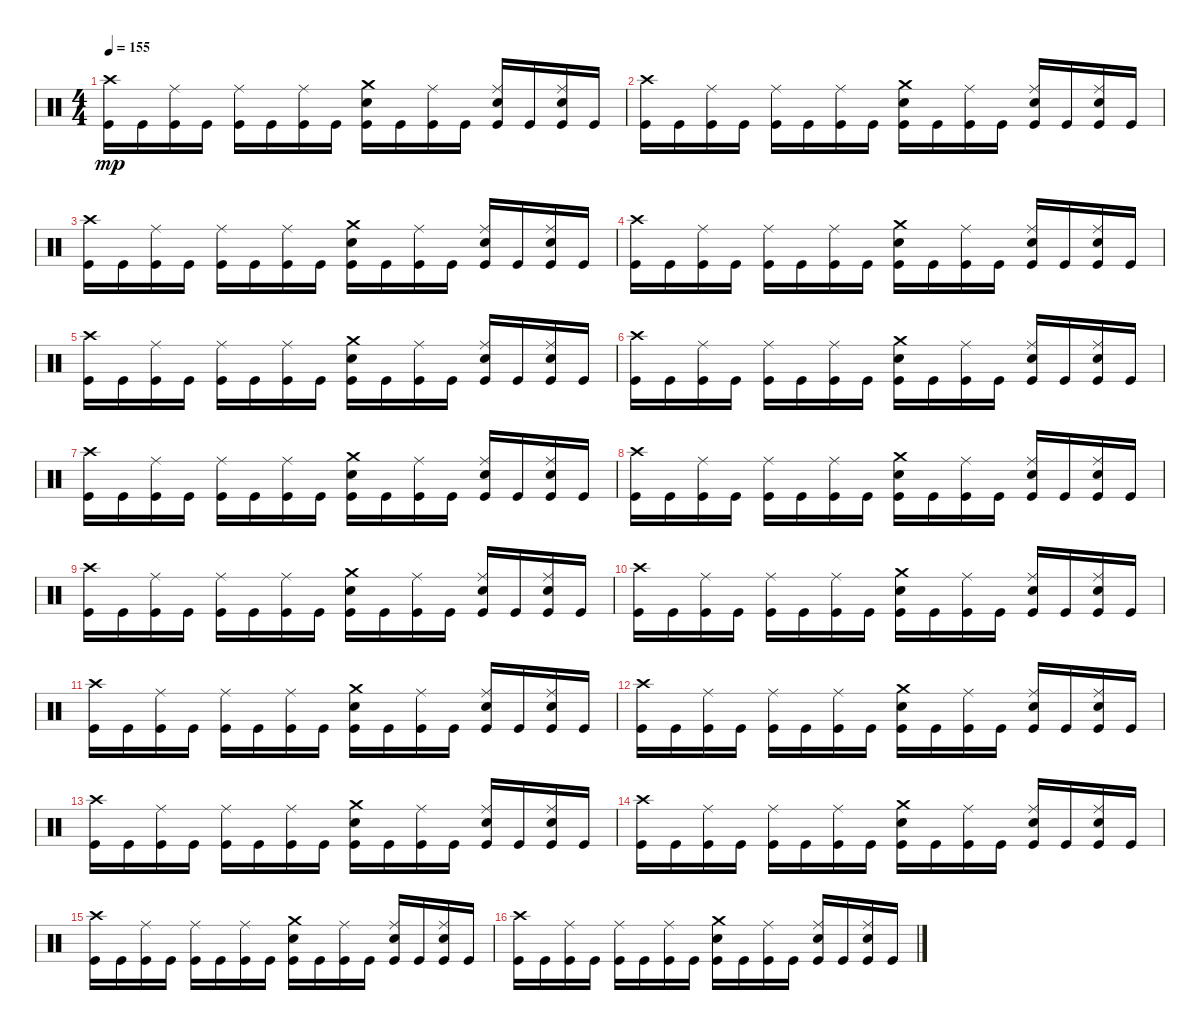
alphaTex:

\track "" {instrument percussion}
\staff {score}
\articulation defaults
\ts (4 4)
\tempo 155
\clef neutral
\ks c
("Crash high (hit)" "Kick (hit)").16{dy mp} "Kick (hit)".16 ("Kick (hit)" "Ride (middle)").16 "Kick (hit)".16 ("Kick (hit)" "Ride (middle)").16 "Kick (hit)".16 ("Kick (hit)" "Ride (middle)").16 "Kick (hit)".16 ("Kick (hit)" "Snare (hit) 2" "Crash medium (hit)").16 "Kick (hit)".16 ("Kick (hit)" "Ride (middle)").16 "Kick (hit)".16 ("Kick (hit)" "Ride (middle)" "Snare (hit) 2").16 "Kick (hit)".16 ("Kick (hit)" "Ride (middle)" "Snare (hit) 2").16 "Kick (hit)".16 |
("Kick (hit)" "Crash high (hit)").16 "Kick (hit)".16 ("Kick (hit)" "Ride (middle)").16 "Kick (hit)".16 ("Kick (hit)" "Ride (middle)").16 "Kick (hit)".16 ("Kick (hit)" "Ride (middle)").16 "Kick (hit)".16 ("Kick (hit)" "Snare (hit) 2" "Crash medium (hit)").16 "Kick (hit)".16 ("Kick (hit)" "Ride (middle)").16 "Kick (hit)".16 ("Ride (middle)" "Kick (hit)" "Snare (hit) 2").16 "Kick (hit)".16 ("Ride (middle)" "Kick (hit)" "Snare (hit) 2").16 "Kick (hit)".16 |
("Crash high (hit)" "Kick (hit)").16 "Kick (hit)".16 ("Kick (hit)" "Ride (middle)").16 "Kick (hit)".16 ("Kick (hit)" "Ride (middle)").16 "Kick (hit)".16 ("Kick (hit)" "Ride (middle)").16 "Kick (hit)".16 ("Kick (hit)" "Snare (hit) 2" "Crash medium (hit)").16 "Kick (hit)".16 ("Kick (hit)" "Ride (middle)").16 "Kick (hit)".16 ("Kick (hit)" "Ride (middle)" "Snare (hit) 2").16 "Kick (hit)".16 ("Kick (hit)" "Ride (middle)" "Snare (hit) 2").16 "Kick (hit)".16 |
("Kick (hit)" "Crash high (hit)").16 "Kick (hit)".16 ("Kick (hit)" "Ride (middle)").16 "Kick (hit)".16 ("Kick (hit)" "Ride (middle)").16 "Kick (hit)".16 ("Kick (hit)" "Ride (middle)").16 "Kick (hit)".16 ("Kick (hit)" "Snare (hit) 2" "Crash medium (hit)").16 "Kick (hit)".16 ("Kick (hit)" "Ride (middle)").16 "Kick (hit)".16 ("Kick (hit)" "Ride (middle)" "Snare (hit) 2").16 "Kick (hit)".16 ("Kick (hit)" "Ride (middle)" "Snare (hit) 2").16 "Kick (hit)".16 |
("Crash high (hit)" "Kick (hit)").16 "Kick (hit)".16 ("Kick (hit)" "Ride (middle)").16 "Kick (hit)".16 ("Kick (hit)" "Ride (middle)").16 "Kick (hit)".16 ("Kick (hit)" "Ride (middle)").16 "Kick (hit)".16 ("Kick (hit)" "Snare (hit) 2" "Crash medium (hit)").16 "Kick (hit)".16 ("Kick (hit)" "Ride (middle)").16 "Kick (hit)".16 ("Kick (hit)" "Ride (middle)" "Snare (hit) 2").16 "Kick (hit)".16 ("Kick (hit)" "Ride (middle)" "Snare (hit) 2").16 "Kick (hit)".16 |
("Kick (hit)" "Crash high (hit)").16 "Kick (hit)".16 ("Kick (hit)" "Ride (middle)").16 "Kick (hit)".16 ("Kick (hit)" "Ride (middle)").16 "Kick (hit)".16 ("Kick (hit)" "Ride (middle)").16 "Kick (hit)".16 ("Kick (hit)" "Snare (hit) 2" "Crash medium (hit)").16 "Kick (hit)".16 ("Kick (hit)" "Ride (middle)").16 "Kick (hit)".16 ("Ride (middle)" "Kick (hit)" "Snare (hit) 2").16 "Kick (hit)".16 ("Ride (middle)" "Kick (hit)" "Snare (hit) 2").16 "Kick (hit)".16 |
("Crash high (hit)" "Kick (hit)").16 "Kick (hit)".16 ("Kick (hit)" "Ride (middle)").16 "Kick (hit)".16 ("Kick (hit)" "Ride (middle)").16 "Kick (hit)".16 ("Kick (hit)" "Ride (middle)").16 "Kick (hit)".16 ("Kick (hit)" "Snare (hit) 2" "Crash medium (hit)").16 "Kick (hit)".16 ("Kick (hit)" "Ride (middle)").16 "Kick (hit)".16 ("Kick (hit)" "Ride (middle)" "Snare (hit) 2").16 "Kick (hit)".16 ("Kick (hit)" "Ride (middle)" "Snare (hit) 2").16 "Kick (hit)".16 |
("Kick (hit)" "Crash high (hit)").16 "Kick (hit)".16 ("Kick (hit)" "Ride (middle)").16 "Kick (hit)".16 ("Kick (hit)" "Ride (middle)").16 "Kick (hit)".16 ("Kick (hit)" "Ride (middle)").16 "Kick (hit)".16 ("Kick (hit)" "Snare (hit) 2" "Crash medium (hit)").16 "Kick (hit)".16 ("Kick (hit)" "Ride (middle)").16 "Kick (hit)".16 ("Kick (hit)" "Ride (middle)" "Snare (hit) 2").16 "Kick (hit)".16 ("Kick (hit)" "Ride (middle)" "Snare (hit) 2").16 "Kick (hit)".16 |
("Crash high (hit)" "Kick (hit)").16 "Kick (hit)".16 ("Kick (hit)" "Ride (middle)").16 "Kick (hit)".16 ("Kick (hit)" "Ride (middle)").16 "Kick (hit)".16 ("Kick (hit)" "Ride (middle)").16 "Kick (hit)".16 ("Kick (hit)" "Snare (hit) 2" "Crash medium (hit)").16 "Kick (hit)".16 ("Kick (hit)" "Ride (middle)").16 "Kick (hit)".16 ("Kick (hit)" "Ride (middle)" "Snare (hit) 2").16 "Kick (hit)".16 ("Kick (hit)" "Ride (middle)" "Snare (hit) 2").16 "Kick (hit)".16 |
("Kick (hit)" "Crash high (hit)").16 "Kick (hit)".16 ("Kick (hit)" "Ride (middle)").16 "Kick (hit)".16 ("Kick (hit)" "Ride (middle)").16 "Kick (hit)".16 ("Kick (hit)" "Ride (middle)").16 "Kick (hit)".16 ("Kick (hit)" "Snare (hit) 2" "Crash medium (hit)").16 "Kick (hit)".16 ("Kick (hit)" "Ride (middle)").16 "Kick (hit)".16 ("Ride (middle)" "Kick (hit)" "Snare (hit) 2").16 "Kick (hit)".16 ("Ride (middle)" "Kick (hit)" "Snare (hit) 2").16 "Kick (hit)".16 |
("Crash high (hit)" "Kick (hit)").16 "Kick (hit)".16 ("Kick (hit)" "Ride (middle)").16 "Kick (hit)".16 ("Kick (hit)" "Ride (middle)").16 "Kick (hit)".16 ("Kick (hit)" "Ride (middle)").16 "Kick (hit)".16 ("Kick (hit)" "Snare (hit) 2" "Crash medium (hit)").16 "Kick (hit)".16 ("Kick (hit)" "Ride (middle)").16 "Kick (hit)".16 ("Kick (hit)" "Ride (middle)" "Snare (hit) 2").16 "Kick (hit)".16 ("Kick (hit)" "Ride (middle)" "Snare (hit) 2").16 "Kick (hit)".16 |
("Kick (hit)" "Crash high (hit)").16 "Kick (hit)".16 ("Kick (hit)" "Ride (middle)").16 "Kick (hit)".16 ("Kick (hit)" "Ride (middle)").16 "Kick (hit)".16 ("Kick (hit)" "Ride (middle)").16 "Kick (hit)".16 ("Kick (hit)" "Snare (hit) 2" "Crash medium (hit)").16 "Kick (hit)".16 ("Kick (hit)" "Ride (middle)").16 "Kick (hit)".16 ("Kick (hit)" "Ride (middle)" "Snare (hit) 2").16 "Kick (hit)".16 ("Kick (hit)" "Ride (middle)" "Snare (hit) 2").16 "Kick (hit)".16 |
("Crash high (hit)" "Kick (hit)").16 "Kick (hit)".16 ("Kick (hit)" "Ride (middle)").16 "Kick (hit)".16 ("Kick (hit)" "Ride (middle)").16 "Kick (hit)".16 ("Kick (hit)" "Ride (middle)").16 "Kick (hit)".16 ("Kick (hit)" "Snare (hit) 2" "Crash medium (hit)").16 "Kick (hit)".16 ("Kick (hit)" "Ride (middle)").16 "Kick (hit)".16 ("Kick (hit)" "Ride (middle)" "Snare (hit) 2").16 "Kick (hit)".16 ("Kick (hit)" "Ride (middle)" "Snare (hit) 2").16 "Kick (hit)".16 |
("Kick (hit)" "Crash high (hit)").16 "Kick (hit)".16 ("Kick (hit)" "Ride (middle)").16 "Kick (hit)".16 ("Kick (hit)" "Ride (middle)").16 "Kick (hit)".16 ("Kick (hit)" "Ride (middle)").16 "Kick (hit)".16 ("Kick (hit)" "Snare (hit) 2" "Crash medium (hit)").16 "Kick (hit)".16 ("Kick (hit)" "Ride (middle)").16 "Kick (hit)".16 ("Ride (middle)" "Kick (hit)" "Snare (hit) 2").16 "Kick (hit)".16 ("Ride (middle)" "Kick (hit)" "Snare (hit) 2").16 "Kick (hit)".16 |
("Crash high (hit)" "Kick (hit)").16 "Kick (hit)".16 ("Kick (hit)" "Ride (middle)").16 "Kick (hit)".16 ("Kick (hit)" "Ride (middle)").16 "Kick (hit)".16 ("Kick (hit)" "Ride (middle)").16 "Kick (hit)".16 ("Kick (hit)" "Snare (hit) 2" "Crash medium (hit)").16 "Kick (hit)".16 ("Kick (hit)" "Ride (middle)").16 "Kick (hit)".16 ("Kick (hit)" "Ride (middle)" "Snare (hit) 2").16 "Kick (hit)".16 ("Kick (hit)" "Ride (middle)" "Snare (hit) 2").16 "Kick (hit)".16 |
("Kick (hit)" "Crash high (hit)").16 "Kick (hit)".16 ("Kick (hit)" "Ride (middle)").16 "Kick (hit)".16 ("Kick (hit)" "Ride (middle)").16 "Kick (hit)".16 ("Kick (hit)" "Ride (middle)").16 "Kick (hit)".16 ("Kick (hit)" "Snare (hit) 2" "Crash medium (hit)").16 "Kick (hit)".16 ("Kick (hit)" "Ride (middle)").16 "Kick (hit)".16 ("Kick (hit)" "Ride (middle)" "Snare (hit) 2").16 "Kick (hit)".16 ("Kick (hit)" "Ride (middle)" "Snare (hit) 2").16 "Kick (hit)".16
